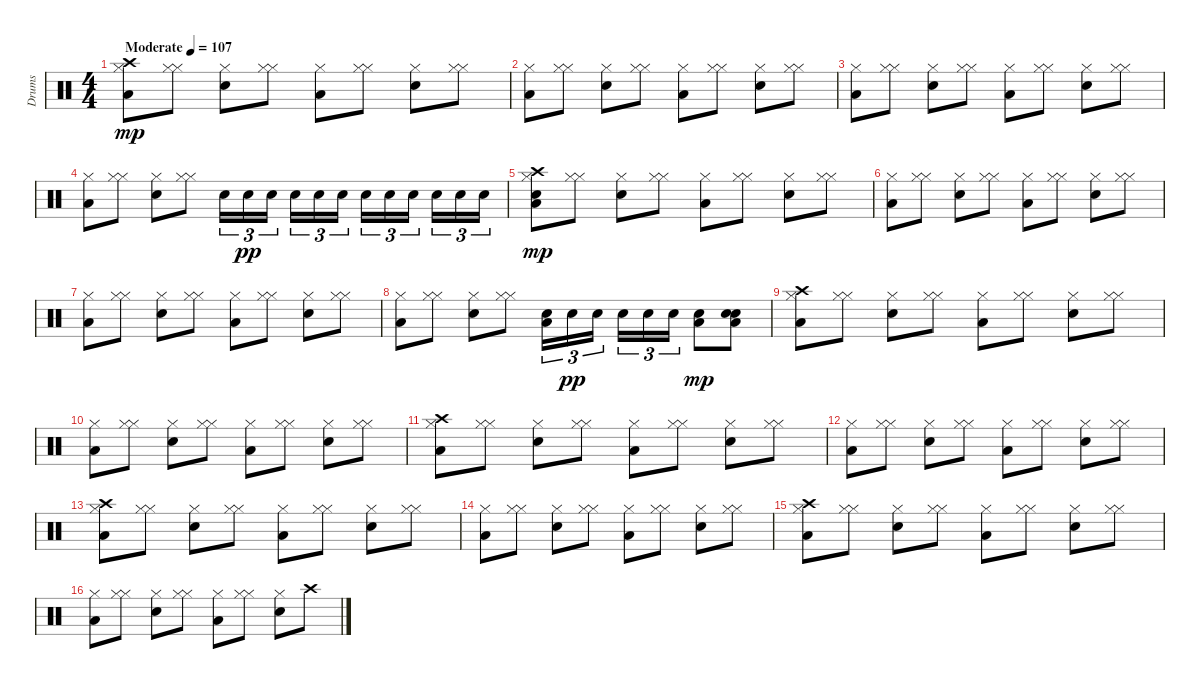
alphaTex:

\track ("Drums" "Drums") {instrument percussion}
\staff {score}
\articulation defaults
\ts (4 4)
\tempo (107 "Moderate")
\clef neutral
\ks c
("Hi-Hat (closed)" "Crash high (hit)" "Low Tom (hit)").8{dy mp} ("Hi-Hat (closed)" "Hi-Hat (closed)").8 ("Hi-Hat (closed)" "Snare (hit) 2").8 ("Hi-Hat (closed)" "Hi-Hat (closed)").8 ("Hi-Hat (closed)" "Low Tom (hit)").8 ("Hi-Hat (closed)" "Hi-Hat (closed)").8 ("Hi-Hat (closed)" "Snare (hit) 2").8 ("Hi-Hat (closed)" "Hi-Hat (closed)").8 |
("Hi-Hat (closed)" "Low Tom (hit)").8 ("Hi-Hat (closed)" "Hi-Hat (closed)").8 ("Hi-Hat (closed)" "Snare (hit) 2").8 ("Hi-Hat (closed)" "Hi-Hat (closed)").8 ("Hi-Hat (closed)" "Low Tom (hit)").8 ("Hi-Hat (closed)" "Hi-Hat (closed)").8 ("Hi-Hat (closed)" "Snare (hit) 2").8 ("Hi-Hat (closed)" "Hi-Hat (closed)").8 |
("Hi-Hat (closed)" "Low Tom (hit)").8 ("Hi-Hat (closed)" "Hi-Hat (closed)").8 ("Hi-Hat (closed)" "Snare (hit) 2").8 ("Hi-Hat (closed)" "Hi-Hat (closed)").8 ("Hi-Hat (closed)" "Low Tom (hit)").8 ("Hi-Hat (closed)" "Hi-Hat (closed)").8 ("Hi-Hat (closed)" "Snare (hit) 2").8 ("Hi-Hat (closed)" "Hi-Hat (closed)").8 |
("Hi-Hat (closed)" "Low Tom (hit)").8 ("Hi-Hat (closed)" "Hi-Hat (closed)").8 ("Hi-Hat (closed)" "Snare (hit) 2").8 ("Hi-Hat (closed)" "Hi-Hat (closed)").8 "Snare (hit) 2".16{tu (3 2)} "Snare (hit) 2".16{tu (3 2) dy pp} "Snare (hit) 2".16{tu (3 2) beam splitsecondary} "Snare (hit) 2".16{tu (3 2)} "Snare (hit) 2".16{tu (3 2)} "Snare (hit) 2".16{tu (3 2)} "Snare (hit) 2".16{tu (3 2)} "Snare (hit) 2".16{tu (3 2)} "Snare (hit) 2".16{tu (3 2) beam splitsecondary} "Snare (hit) 2".16{tu (3 2)} "Snare (hit) 2".16{tu (3 2)} "Snare (hit) 2".16{tu (3 2)} |
("Hi-Hat (closed)" "Crash high (hit)" "Low Tom (hit)" "Snare (hit) 2").8{dy mp} ("Hi-Hat (closed)" "Hi-Hat (closed)").8 ("Hi-Hat (closed)" "Snare (hit) 2").8 ("Hi-Hat (closed)" "Hi-Hat (closed)").8 ("Hi-Hat (closed)" "Low Tom (hit)").8 ("Hi-Hat (closed)" "Hi-Hat (closed)").8 ("Hi-Hat (closed)" "Snare (hit) 2").8 ("Hi-Hat (closed)" "Hi-Hat (closed)").8 |
("Hi-Hat (closed)" "Low Tom (hit)").8 ("Hi-Hat (closed)" "Hi-Hat (closed)").8 ("Hi-Hat (closed)" "Snare (hit) 2").8 ("Hi-Hat (closed)" "Hi-Hat (closed)").8 ("Hi-Hat (closed)" "Low Tom (hit)").8 ("Hi-Hat (closed)" "Hi-Hat (closed)").8 ("Hi-Hat (closed)" "Snare (hit) 2").8 ("Hi-Hat (closed)" "Hi-Hat (closed)").8 |
("Hi-Hat (closed)" "Low Tom (hit)").8 ("Hi-Hat (closed)" "Hi-Hat (closed)").8 ("Hi-Hat (closed)" "Snare (hit) 2").8 ("Hi-Hat (closed)" "Hi-Hat (closed)").8 ("Hi-Hat (closed)" "Low Tom (hit)").8 ("Hi-Hat (closed)" "Hi-Hat (closed)").8 ("Hi-Hat (closed)" "Snare (hit) 2").8 ("Hi-Hat (closed)" "Hi-Hat (closed)").8 |
("Hi-Hat (closed)" "Low Tom (hit)").8 ("Hi-Hat (closed)" "Hi-Hat (closed)").8 ("Hi-Hat (closed)" "Snare (hit) 2").8 ("Hi-Hat (closed)" "Hi-Hat (closed)").8 ("Snare (hit) 2" "Low Tom (hit)").16{tu (3 2)} "Snare (hit) 2".16{tu (3 2) dy pp} "Snare (hit) 2".16{tu (3 2) beam splitsecondary} "Snare (hit) 2".16{tu (3 2)} "Snare (hit) 2".16{tu (3 2)} "Snare (hit) 2".16{tu (3 2)} ("Snare (hit) 2" "Low Tom (hit)").8{dy mp} ("Snare (hit) 2" "Low Tom (hit)" "Snare (hit) 2").8 |
("Hi-Hat (closed)" "Crash high (hit)" "Low Tom (hit)").8 ("Hi-Hat (closed)" "Hi-Hat (closed)").8 ("Hi-Hat (closed)" "Snare (hit) 2").8 ("Hi-Hat (closed)" "Hi-Hat (closed)").8 ("Hi-Hat (closed)" "Low Tom (hit)").8 ("Hi-Hat (closed)" "Hi-Hat (closed)").8 ("Hi-Hat (closed)" "Snare (hit) 2").8 ("Hi-Hat (closed)" "Hi-Hat (closed)").8 |
("Hi-Hat (closed)" "Low Tom (hit)").8 ("Hi-Hat (closed)" "Hi-Hat (closed)").8 ("Hi-Hat (closed)" "Snare (hit) 2").8 ("Hi-Hat (closed)" "Hi-Hat (closed)").8 ("Hi-Hat (closed)" "Low Tom (hit)").8 ("Hi-Hat (closed)" "Hi-Hat (closed)").8 ("Hi-Hat (closed)" "Snare (hit) 2").8 ("Hi-Hat (closed)" "Hi-Hat (closed)").8 |
("Hi-Hat (closed)" "Crash high (hit)" "Low Tom (hit)").8 ("Hi-Hat (closed)" "Hi-Hat (closed)").8 ("Hi-Hat (closed)" "Snare (hit) 2").8 ("Hi-Hat (closed)" "Hi-Hat (closed)").8 ("Hi-Hat (closed)" "Low Tom (hit)").8 ("Hi-Hat (closed)" "Hi-Hat (closed)").8 ("Hi-Hat (closed)" "Snare (hit) 2").8 ("Hi-Hat (closed)" "Hi-Hat (closed)").8 |
("Hi-Hat (closed)" "Low Tom (hit)").8 ("Hi-Hat (closed)" "Hi-Hat (closed)").8 ("Hi-Hat (closed)" "Snare (hit) 2").8 ("Hi-Hat (closed)" "Hi-Hat (closed)").8 ("Hi-Hat (closed)" "Low Tom (hit)").8 ("Hi-Hat (closed)" "Hi-Hat (closed)").8 ("Hi-Hat (closed)" "Snare (hit) 2").8 ("Hi-Hat (closed)" "Hi-Hat (closed)").8 |
("Hi-Hat (closed)" "Crash high (hit)" "Low Tom (hit)").8 ("Hi-Hat (closed)" "Hi-Hat (closed)").8 ("Hi-Hat (closed)" "Snare (hit) 2").8 ("Hi-Hat (closed)" "Hi-Hat (closed)").8 ("Hi-Hat (closed)" "Low Tom (hit)").8 ("Hi-Hat (closed)" "Hi-Hat (closed)").8 ("Hi-Hat (closed)" "Snare (hit) 2").8 ("Hi-Hat (closed)" "Hi-Hat (closed)").8 |
("Hi-Hat (closed)" "Low Tom (hit)").8 ("Hi-Hat (closed)" "Hi-Hat (closed)").8 ("Hi-Hat (closed)" "Snare (hit) 2").8 ("Hi-Hat (closed)" "Hi-Hat (closed)").8 ("Hi-Hat (closed)" "Low Tom (hit)").8 ("Hi-Hat (closed)" "Hi-Hat (closed)").8 ("Hi-Hat (closed)" "Snare (hit) 2").8 ("Hi-Hat (closed)" "Hi-Hat (closed)").8 |
("Hi-Hat (closed)" "Crash high (hit)" "Low Tom (hit)").8 ("Hi-Hat (closed)" "Hi-Hat (closed)").8 ("Hi-Hat (closed)" "Snare (hit) 2").8 ("Hi-Hat (closed)" "Hi-Hat (closed)").8 ("Hi-Hat (closed)" "Low Tom (hit)").8 ("Hi-Hat (closed)" "Hi-Hat (closed)").8 ("Hi-Hat (closed)" "Snare (hit) 2").8 ("Hi-Hat (closed)" "Hi-Hat (closed)").8 |
("Hi-Hat (closed)" "Low Tom (hit)").8 ("Hi-Hat (closed)" "Hi-Hat (closed)").8 ("Hi-Hat (closed)" "Snare (hit) 2").8 ("Hi-Hat (closed)" "Hi-Hat (closed)").8 ("Hi-Hat (closed)" "Low Tom (hit)").8 ("Hi-Hat (closed)" "Hi-Hat (closed)").8 ("Hi-Hat (closed)" "Snare (hit) 2").8 "Crash high (hit)".8
